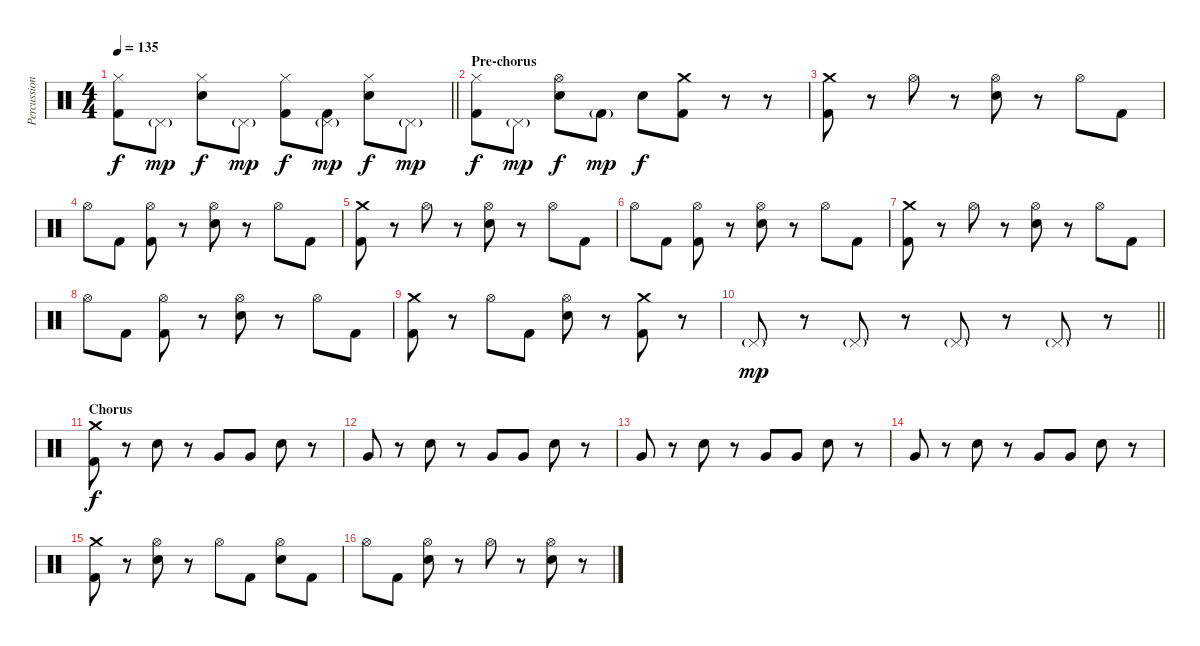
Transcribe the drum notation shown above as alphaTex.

\track ("Percussion" "Percussion") {instrument percussion}
\staff {score}
\articulation defaults
\ts (4 4)
\tempo 135
\clef neutral
\barLineRight lightlight
\ks c
("Hi-Hat (closed)" "Kick (hit) 2").8{dy f} "Pedal Hi-Hat (hit)"{g}.8{dy mp} ("Hi-Hat (closed)" "Electric Snare (hit)").8{dy f} "Pedal Hi-Hat (hit)"{g}.8{dy mp} ("Hi-Hat (closed)" "Kick (hit) 2").8{dy f} ("Pedal Hi-Hat (hit)"{g} "Kick (hit) 2").8{dy mp} ("Hi-Hat (closed)" "Electric Snare (hit)").8{dy f} "Pedal Hi-Hat (hit)"{g}.8{dy mp} |
\section ("" "Pre-chorus")
("Hi-Hat (closed)" "Kick (hit) 2").8{dy f} "Pedal Hi-Hat (hit)"{g}.8{dy mp} ("Hi-Hat (open)" "Electric Snare (hit)").8{dy f} "Kick (hit) 2"{g}.8{dy mp} "Electric Snare (hit)".8{dy f} ("Crash medium (hit)" "Kick (hit) 2").8 r.8 r.8 |
("Crash medium (hit)" "Kick (hit) 2").8 r.8 "Hi-Hat (open)".8 r.8 ("Hi-Hat (open)" "Electric Snare (hit)").8 r.8 "Hi-Hat (open)".8 "Kick (hit) 2".8 |
"Hi-Hat (open)".8 "Kick (hit) 2".8 ("Hi-Hat (open)" "Kick (hit) 2").8 r.8 ("Hi-Hat (open)" "Electric Snare (hit)").8 r.8 "Hi-Hat (open)".8 "Kick (hit) 2".8 |
("Crash medium (hit)" "Kick (hit) 2").8 r.8 "Hi-Hat (open)".8 r.8 ("Hi-Hat (open)" "Electric Snare (hit)").8 r.8 "Hi-Hat (open)".8 "Kick (hit) 2".8 |
"Hi-Hat (open)".8 "Kick (hit) 2".8 ("Hi-Hat (open)" "Kick (hit) 2").8 r.8 ("Hi-Hat (open)" "Electric Snare (hit)").8 r.8 "Hi-Hat (open)".8 "Kick (hit) 2".8 |
("Crash medium (hit)" "Kick (hit) 2").8 r.8 "Hi-Hat (open)".8 r.8 ("Hi-Hat (open)" "Electric Snare (hit)").8 r.8 "Hi-Hat (open)".8 "Kick (hit) 2".8 |
"Hi-Hat (open)".8 "Kick (hit) 2".8 ("Hi-Hat (open)" "Kick (hit) 2").8 r.8 ("Hi-Hat (open)" "Electric Snare (hit)").8 r.8 "Hi-Hat (open)".8 "Kick (hit) 2".8 |
("Crash medium (hit)" "Kick (hit) 2").8 r.8 "Hi-Hat (open)".8 "Kick (hit) 2".8 ("Hi-Hat (open)" "Electric Snare (hit)").8 r.8 ("Kick (hit) 2" "Crash medium (hit)").8 r.8 |
\barLineRight lightlight "Pedal Hi-Hat (hit)"{g}.8{dy mp}
r.8 "Pedal Hi-Hat (hit)"{g}.8 r.8 "Pedal Hi-Hat (hit)"{g}.8 r.8 "Pedal Hi-Hat (hit)"{g}.8 r.8 |
\section ("" "Chorus")
("Crash medium (hit)" "Kick (hit) 2").8{dy f} r.8 "Electric Snare (hit)".8 r.8 "Very Low Tom (hit)".8 "Very Low Tom (hit)".8 "Electric Snare (hit)".8 r.8 |
"Very Low Tom (hit)".8 r.8 "Electric Snare (hit)".8 r.8 "Very Low Tom (hit)".8 "Very Low Tom (hit)".8 "Electric Snare (hit)".8 r.8 |
"Very Low Tom (hit)".8 r.8 "Electric Snare (hit)".8 r.8 "Very Low Tom (hit)".8 "Very Low Tom (hit)".8 "Electric Snare (hit)".8 r.8 |
"Very Low Tom (hit)".8 r.8 "Electric Snare (hit)".8 r.8 "Very Low Tom (hit)".8 "Very Low Tom (hit)".8 "Electric Snare (hit)".8 r.8 |
("Crash medium (hit)" "Kick (hit) 2").8 r.8 ("Hi-Hat (open)" "Electric Snare (hit)").8 r.8 "Hi-Hat (open)".8 "Kick (hit) 2".8 ("Hi-Hat (open)" "Electric Snare (hit)").8 "Kick (hit) 2".8 |
"Hi-Hat (open)".8 "Kick (hit) 2".8 ("Hi-Hat (open)" "Electric Snare (hit)").8 r.8 "Hi-Hat (open)".8 r.8 ("Hi-Hat (open)" "Electric Snare (hit)").8 r.8
